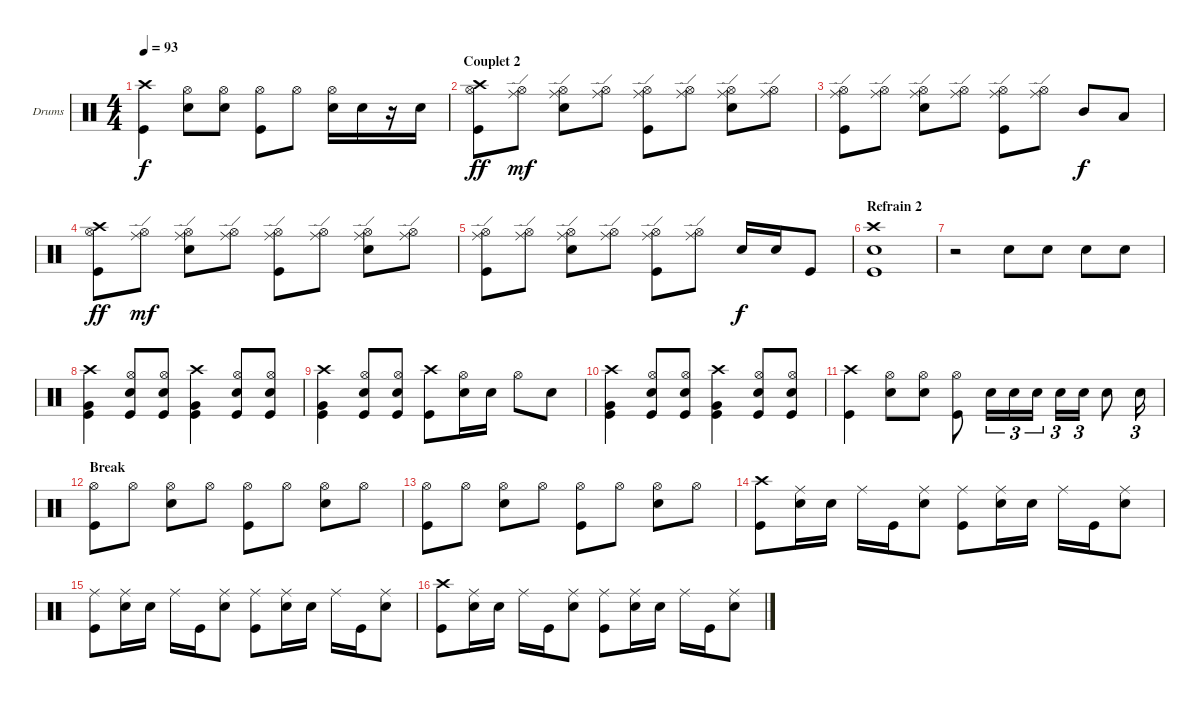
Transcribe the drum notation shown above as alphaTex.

\bracketExtendMode groupsimilarinstruments
\firstSystemTrackNameOrientation horizontal
\otherSystemsTrackNameOrientation horizontal
\track ("Drumkit" "Drums") {instrument percussion}
\staff {score}
\articulation defaults
\ts (4 4)
\tempo 93
\clef neutral
\ks c
("Crash high (hit)" "Kick (hit)").4{dy f} ("Hi-Hat (open)" "Snare (hit) 2").8 ("Hi-Hat (open)" "Snare (hit) 2").8 ("Hi-Hat (open)" "Kick (hit)").8 "Hi-Hat (open)".8 ("Hi-Hat (open)" "Snare (hit) 2").16 "Snare (hit) 2".16 r.16 "Snare (hit) 2".16 |
\section ("" "Couplet 2")
("Crash high (hit)" "Hi-Hat (open)" "Kick (hit)").8{dy ff} ("Ride (edge)" "Hi-Hat (open)").8{dy mf} ("Ride (edge)" "Hi-Hat (open)" "Snare (hit) 2").8 ("Ride (edge)" "Hi-Hat (open)").8 ("Ride (edge)" "Hi-Hat (open)" "Kick (hit)").8 ("Ride (edge)" "Hi-Hat (open)").8 ("Ride (edge)" "Hi-Hat (open)" "Snare (hit) 2").8 ("Ride (edge)" "Hi-Hat (open)").8 |
("Ride (edge)" "Hi-Hat (open)" "Kick (hit)").8 ("Ride (edge)" "Hi-Hat (open)").8 ("Ride (edge)" "Hi-Hat (open)" "Snare (hit) 2").8 ("Ride (edge)" "Hi-Hat (open)").8 ("Ride (edge)" "Hi-Hat (open)" "Kick (hit)").8 ("Ride (edge)" "Hi-Hat (open)").8 "Mid Tom (hit)".8{dy f} "Low Tom (hit)".8 |
("Crash high (hit)" "Hi-Hat (open)" "Kick (hit)").8{dy ff} ("Ride (edge)" "Hi-Hat (open)").8{dy mf} ("Ride (edge)" "Hi-Hat (open)" "Snare (hit) 2").8 ("Ride (edge)" "Hi-Hat (open)").8 ("Ride (edge)" "Hi-Hat (open)" "Kick (hit)").8 ("Ride (edge)" "Hi-Hat (open)").8 ("Ride (edge)" "Hi-Hat (open)" "Snare (hit) 2").8 ("Ride (edge)" "Hi-Hat (open)").8 |
("Ride (edge)" "Hi-Hat (open)" "Kick (hit)").8 ("Ride (edge)" "Hi-Hat (open)").8 ("Ride (edge)" "Hi-Hat (open)" "Snare (hit) 2").8 ("Ride (edge)" "Hi-Hat (open)").8 ("Ride (edge)" "Hi-Hat (open)" "Kick (hit)").8 ("Ride (edge)" "Hi-Hat (open)").8 "Snare (hit) 2".16{dy f} "Snare (hit) 2".16 "Kick (hit)".8 |
\section ("" "Refrain 2")
("Crash high (hit)" "Snare (hit) 2" "Kick (hit)").1 |
r.2 "Snare (hit) 2".8 "Snare (hit) 2".8 "Snare (hit) 2".8 "Snare (hit) 2".8 |
("Crash high (hit)" "Very Low Tom (hit)" "Kick (hit)").4 ("Hi-Hat (open)" "Snare (hit) 2" "Kick (hit)").8 ("Hi-Hat (open)" "Snare (hit) 2" "Kick (hit)").8 ("Crash high (hit)" "Very Low Tom (hit)" "Kick (hit)").4 ("Hi-Hat (open)" "Snare (hit) 2" "Kick (hit)").8 ("Hi-Hat (open)" "Snare (hit) 2" "Kick (hit)").8 |
("Crash high (hit)" "Very Low Tom (hit)" "Kick (hit)").4 ("Hi-Hat (open)" "Snare (hit) 2" "Kick (hit)").8 ("Hi-Hat (open)" "Snare (hit) 2" "Kick (hit)").8 ("Crash high (hit)" "Kick (hit)").8 ("Hi-Hat (open)" "Snare (hit) 2").16 "Snare (hit) 2".16 "Hi-Hat (open)".8 "Snare (hit) 2".8 |
("Crash high (hit)" "Very Low Tom (hit)" "Kick (hit)").4 ("Hi-Hat (open)" "Snare (hit) 2" "Kick (hit)").8 ("Hi-Hat (open)" "Snare (hit) 2" "Kick (hit)").8 ("Crash high (hit)" "Very Low Tom (hit)" "Kick (hit)").4 ("Hi-Hat (open)" "Snare (hit) 2" "Kick (hit)").8 ("Hi-Hat (open)" "Snare (hit) 2" "Kick (hit)").8 |
("Crash high (hit)" "Kick (hit)").4 ("Hi-Hat (open)" "Snare (hit) 2").8 ("Hi-Hat (open)" "Snare (hit) 2").8 ("Hi-Hat (open)" "Kick (hit)").8 "Snare (hit) 2".16{tu (3 2)} "Snare (hit) 2".16{tu (3 2)} "Snare (hit) 2".16{tu (3 2)} "Snare (hit) 2".16{tu (3 2)} "Snare (hit) 2".16{tu (3 2)} "Snare (hit) 2".8 "Snare (hit) 2".16{tu (3 2)} |
\section ("" "Break")
("Hi-Hat (open)" "Kick (hit)").8 "Hi-Hat (open)".8 ("Hi-Hat (open)" "Snare (hit) 2").8 "Hi-Hat (open)".8 ("Hi-Hat (open)" "Kick (hit)").8 "Hi-Hat (open)".8 ("Hi-Hat (open)" "Snare (hit) 2").8 "Hi-Hat (open)".8 |
("Hi-Hat (open)" "Kick (hit)").8 "Hi-Hat (open)".8 ("Hi-Hat (open)" "Snare (hit) 2").8 "Hi-Hat (open)".8 ("Hi-Hat (open)" "Kick (hit)").8 "Hi-Hat (open)".8 ("Hi-Hat (open)" "Snare (hit) 2").8 "Hi-Hat (open)".8 |
("Crash high (hit)" "Kick (hit)").8 ("Ride (middle)" "Snare (hit) 2").16 "Snare (hit) 2".16 "Ride (middle)".16 "Kick (hit)".16 ("Ride (middle)" "Snare (hit) 2").8 ("Ride (middle)" "Kick (hit)").8 ("Ride (middle)" "Snare (hit) 2").16 "Snare (hit) 2".16 "Ride (middle)".16 "Kick (hit)".16 ("Ride (middle)" "Snare (hit) 2").8 |
("Ride (middle)" "Kick (hit)").8 ("Ride (middle)" "Snare (hit) 2").16 "Snare (hit) 2".16 "Ride (middle)".16 "Kick (hit)".16 ("Ride (middle)" "Snare (hit) 2").8 ("Ride (middle)" "Kick (hit)").8 ("Ride (middle)" "Snare (hit) 2").16 "Snare (hit) 2".16 "Ride (middle)".16 "Kick (hit)".16 ("Ride (middle)" "Snare (hit) 2").8 |
("Crash high (hit)" "Kick (hit)").8 ("Ride (middle)" "Snare (hit) 2").16 "Snare (hit) 2".16 "Ride (middle)".16 "Kick (hit)".16 ("Ride (middle)" "Snare (hit) 2").8 ("Ride (middle)" "Kick (hit)").8 ("Ride (middle)" "Snare (hit) 2").16 "Snare (hit) 2".16 "Ride (middle)".16 "Kick (hit)".16 ("Ride (middle)" "Snare (hit) 2").8
